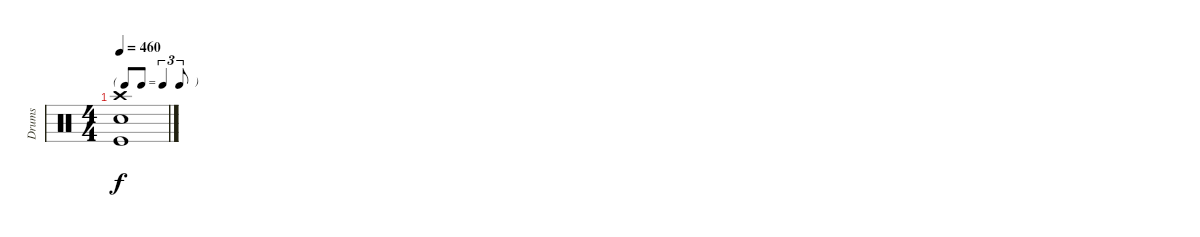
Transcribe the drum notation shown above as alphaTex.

\track ("Drums" "Drums") {instrument percussion}
\staff {score}
\articulation defaults
\ts (4 4)
\tf triplet8th
\tempo 460
\clef neutral
\ks c
("Crash high (hit)" "Kick (hit)" "Electric Snare (hit)").1{dy f}
